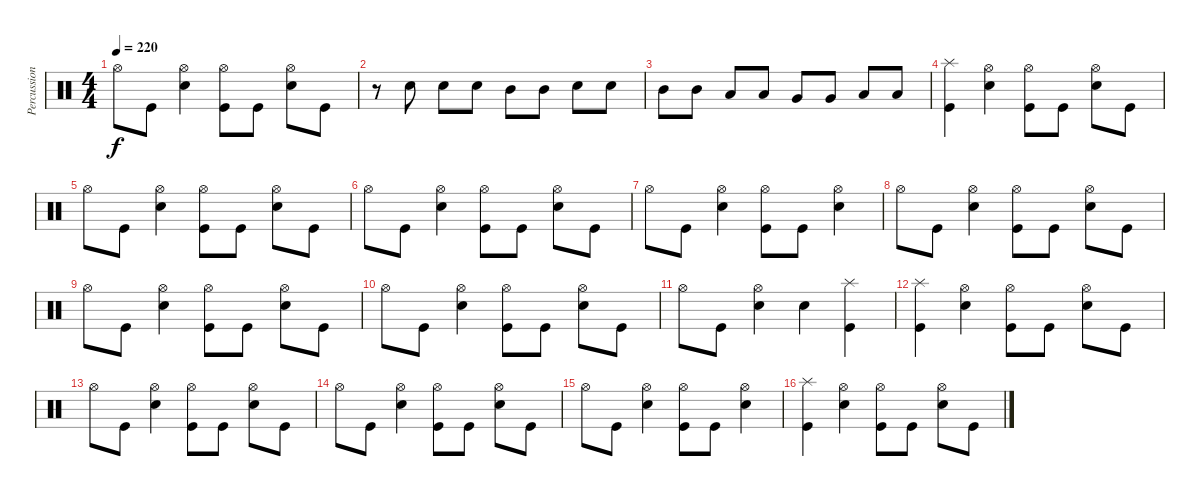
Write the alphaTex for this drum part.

\track ("Percussions" "Percussion") {instrument percussion}
\staff {score}
\articulation defaults
\ts (4 4)
\tempo 220
\clef neutral
\ks c "Hi-Hat (open)".8{dy f} "Kick (hit)".8
("Electric Snare (hit)" "Hi-Hat (open)").4 ("Kick (hit)" "Hi-Hat (open)").8 "Kick (hit)".8 ("Electric Snare (hit)" "Hi-Hat (open)").8 "Kick (hit)".8 |
r.8 "Electric Snare (hit)".8 "Electric Snare (hit)".8 "Electric Snare (hit)".8 "Mid Tom (hit)".8 "Mid Tom (hit)".8 "Electric Snare (hit)".8 "Electric Snare (hit)".8 |
"Mid Tom (hit)".8 "Mid Tom (hit)".8 "Low Tom (hit)".8 "Low Tom (hit)".8 "Very Low Tom (hit)".8 "Very Low Tom (hit)".8 "Low Floor Tom (hit)".8 "Low Floor Tom (hit)".8 |
("Kick (hit)" "Splash (hit)").4 ("Electric Snare (hit)" "Hi-Hat (open)").4 ("Kick (hit)" "Hi-Hat (open)").8 "Kick (hit)".8 ("Electric Snare (hit)" "Hi-Hat (open)").8 "Kick (hit)".8 |
"Hi-Hat (open)".8 "Kick (hit)".8 ("Electric Snare (hit)" "Hi-Hat (open)").4 ("Kick (hit)" "Hi-Hat (open)").8 "Kick (hit)".8 ("Electric Snare (hit)" "Hi-Hat (open)").8 "Kick (hit)".8 |
"Hi-Hat (open)".8 "Kick (hit)".8 ("Electric Snare (hit)" "Hi-Hat (open)").4 ("Kick (hit)" "Hi-Hat (open)").8 "Kick (hit)".8 ("Electric Snare (hit)" "Hi-Hat (open)").8 "Kick (hit)".8 |
"Hi-Hat (open)".8 "Kick (hit)".8 ("Electric Snare (hit)" "Hi-Hat (open)").4 ("Kick (hit)" "Hi-Hat (open)").8 "Kick (hit)".8 ("Electric Snare (hit)" "Hi-Hat (open)").4 |
"Hi-Hat (open)".8 "Kick (hit)".8 ("Electric Snare (hit)" "Hi-Hat (open)").4 ("Kick (hit)" "Hi-Hat (open)").8 "Kick (hit)".8 ("Electric Snare (hit)" "Hi-Hat (open)").8 "Kick (hit)".8 |
"Hi-Hat (open)".8 "Kick (hit)".8 ("Electric Snare (hit)" "Hi-Hat (open)").4 ("Kick (hit)" "Hi-Hat (open)").8 "Kick (hit)".8 ("Electric Snare (hit)" "Hi-Hat (open)").8 "Kick (hit)".8 |
"Hi-Hat (open)".8 "Kick (hit)".8 ("Electric Snare (hit)" "Hi-Hat (open)").4 ("Kick (hit)" "Hi-Hat (open)").8 "Kick (hit)".8 ("Electric Snare (hit)" "Hi-Hat (open)").8 "Kick (hit)".8 |
"Hi-Hat (open)".8 "Kick (hit)".8 ("Electric Snare (hit)" "Hi-Hat (open)").4 "Electric Snare (hit)".4 ("Kick (hit)" "Splash (hit)").4 |
("Kick (hit)" "Splash (hit)").4 ("Electric Snare (hit)" "Hi-Hat (open)").4 ("Kick (hit)" "Hi-Hat (open)").8 "Kick (hit)".8 ("Electric Snare (hit)" "Hi-Hat (open)").8 "Kick (hit)".8 |
"Hi-Hat (open)".8 "Kick (hit)".8 ("Electric Snare (hit)" "Hi-Hat (open)").4 ("Kick (hit)" "Hi-Hat (open)").8 "Kick (hit)".8 ("Electric Snare (hit)" "Hi-Hat (open)").8 "Kick (hit)".8 |
"Hi-Hat (open)".8 "Kick (hit)".8 ("Electric Snare (hit)" "Hi-Hat (open)").4 ("Kick (hit)" "Hi-Hat (open)").8 "Kick (hit)".8 ("Electric Snare (hit)" "Hi-Hat (open)").8 "Kick (hit)".8 |
"Hi-Hat (open)".8 "Kick (hit)".8 ("Electric Snare (hit)" "Hi-Hat (open)").4 ("Kick (hit)" "Hi-Hat (open)").8 "Kick (hit)".8 ("Electric Snare (hit)" "Hi-Hat (open)").4 |
("Kick (hit)" "Splash (hit)").4 ("Electric Snare (hit)" "Hi-Hat (open)").4 ("Kick (hit)" "Hi-Hat (open)").8 "Kick (hit)".8 ("Electric Snare (hit)" "Hi-Hat (open)").8 "Kick (hit)".8
